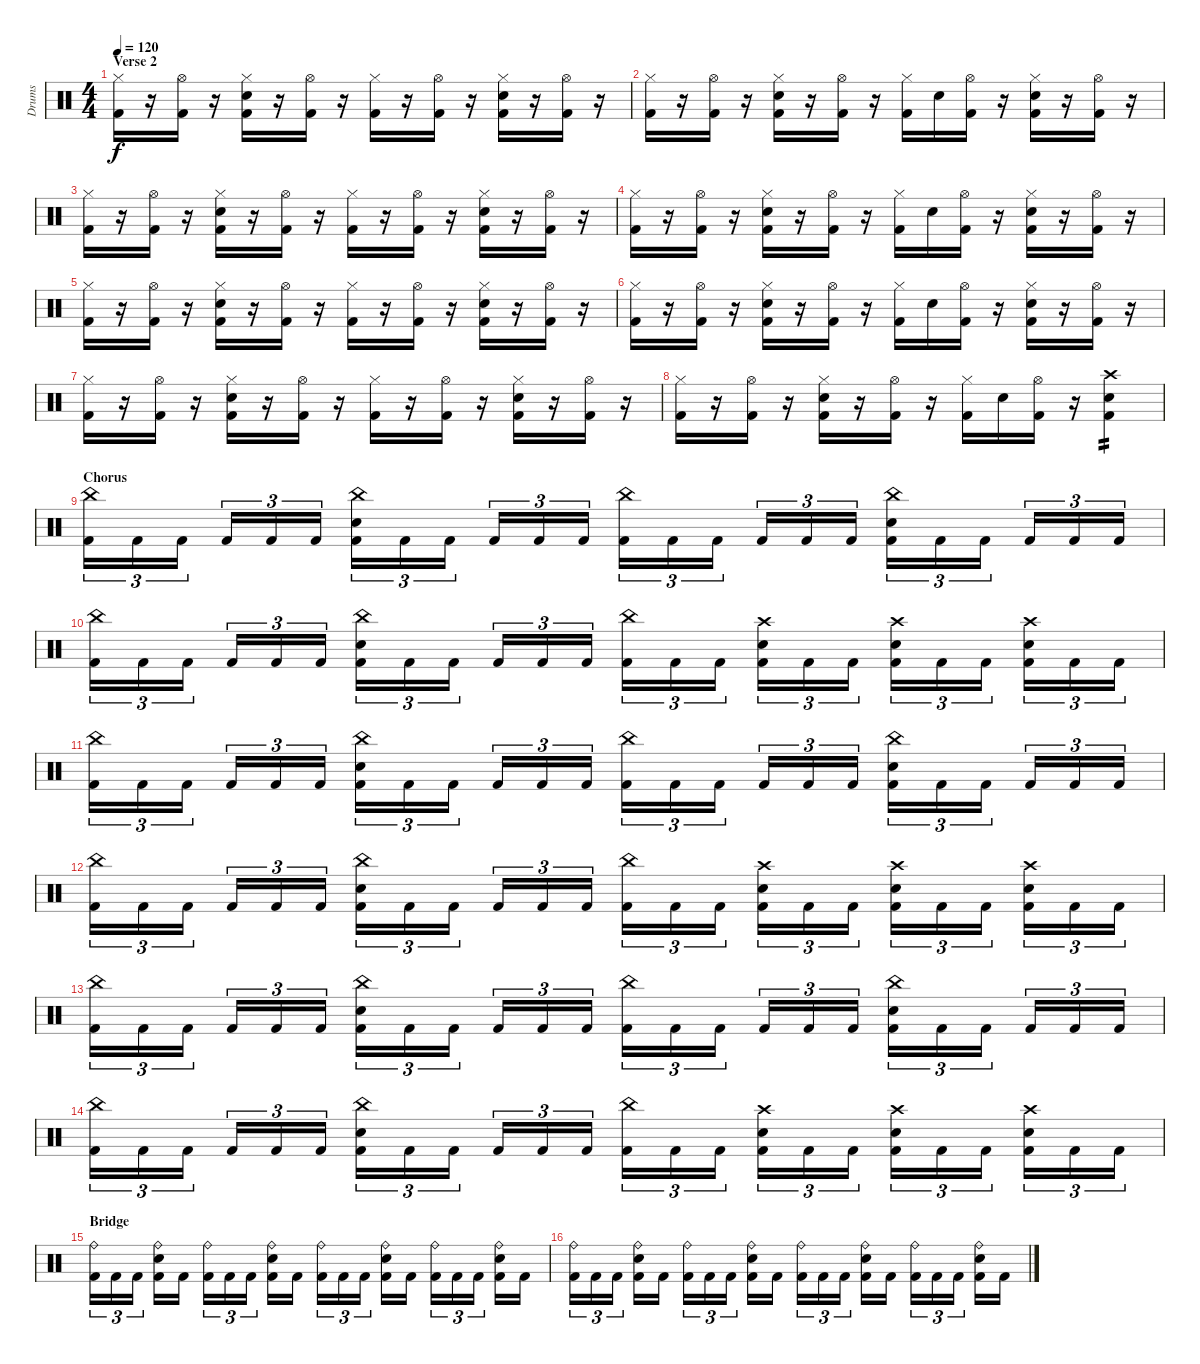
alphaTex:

\track ("Drums" "Drums") {instrument percussion}
\staff {score}
\articulation defaults
\ts (4 4)
\section ("" "Verse 2")
\tempo 120
\clef neutral
\ks c
("Hi-Hat (closed)" "Kick (hit) 2").16{dy f} r.16 ("Hi-Hat (open)" "Kick (hit) 2").16 r.16 ("Hi-Hat (closed)" "Electric Snare (hit)" "Kick (hit) 2").16 r.16 ("Hi-Hat (open)" "Kick (hit) 2").16 r.16 ("Hi-Hat (closed)" "Kick (hit) 2").16 r.16 ("Hi-Hat (open)" "Kick (hit) 2").16 r.16 ("Hi-Hat (closed)" "Electric Snare (hit)" "Kick (hit) 2").16 r.16 ("Hi-Hat (open)" "Kick (hit) 2").16 r.16 |
("Hi-Hat (closed)" "Kick (hit) 2").16 r.16 ("Hi-Hat (open)" "Kick (hit) 2").16 r.16 ("Hi-Hat (closed)" "Electric Snare (hit)" "Kick (hit) 2").16 r.16 ("Hi-Hat (open)" "Kick (hit) 2").16 r.16 ("Hi-Hat (closed)" "Kick (hit) 2").16 "Electric Snare (hit)".16 ("Hi-Hat (open)" "Kick (hit) 2").16 r.16 ("Hi-Hat (closed)" "Electric Snare (hit)" "Kick (hit) 2").16 r.16 ("Hi-Hat (open)" "Kick (hit) 2").16 r.16 |
("Hi-Hat (closed)" "Kick (hit) 2").16 r.16 ("Hi-Hat (open)" "Kick (hit) 2").16 r.16 ("Hi-Hat (closed)" "Electric Snare (hit)" "Kick (hit) 2").16 r.16 ("Hi-Hat (open)" "Kick (hit) 2").16 r.16 ("Hi-Hat (closed)" "Kick (hit) 2").16 r.16 ("Hi-Hat (open)" "Kick (hit) 2").16 r.16 ("Hi-Hat (closed)" "Electric Snare (hit)" "Kick (hit) 2").16 r.16 ("Hi-Hat (open)" "Kick (hit) 2").16 r.16 |
("Hi-Hat (closed)" "Kick (hit) 2").16 r.16 ("Hi-Hat (open)" "Kick (hit) 2").16 r.16 ("Hi-Hat (closed)" "Electric Snare (hit)" "Kick (hit) 2").16 r.16 ("Hi-Hat (open)" "Kick (hit) 2").16 r.16 ("Hi-Hat (closed)" "Kick (hit) 2").16 "Electric Snare (hit)".16 ("Hi-Hat (open)" "Kick (hit) 2").16 r.16 ("Hi-Hat (closed)" "Electric Snare (hit)" "Kick (hit) 2").16 r.16 ("Hi-Hat (open)" "Kick (hit) 2").16 r.16 |
("Hi-Hat (closed)" "Kick (hit) 2").16 r.16 ("Hi-Hat (open)" "Kick (hit) 2").16 r.16 ("Hi-Hat (closed)" "Electric Snare (hit)" "Kick (hit) 2").16 r.16 ("Hi-Hat (open)" "Kick (hit) 2").16 r.16 ("Hi-Hat (closed)" "Kick (hit) 2").16 r.16 ("Hi-Hat (open)" "Kick (hit) 2").16 r.16 ("Hi-Hat (closed)" "Electric Snare (hit)" "Kick (hit) 2").16 r.16 ("Hi-Hat (open)" "Kick (hit) 2").16 r.16 |
("Hi-Hat (closed)" "Kick (hit) 2").16 r.16 ("Hi-Hat (open)" "Kick (hit) 2").16 r.16 ("Hi-Hat (closed)" "Electric Snare (hit)" "Kick (hit) 2").16 r.16 ("Hi-Hat (open)" "Kick (hit) 2").16 r.16 ("Hi-Hat (closed)" "Kick (hit) 2").16 "Electric Snare (hit)".16 ("Hi-Hat (open)" "Kick (hit) 2").16 r.16 ("Hi-Hat (closed)" "Electric Snare (hit)" "Kick (hit) 2").16 r.16 ("Hi-Hat (open)" "Kick (hit) 2").16 r.16 |
("Hi-Hat (closed)" "Kick (hit) 2").16 r.16 ("Hi-Hat (open)" "Kick (hit) 2").16 r.16 ("Hi-Hat (closed)" "Electric Snare (hit)" "Kick (hit) 2").16 r.16 ("Hi-Hat (open)" "Kick (hit) 2").16 r.16 ("Hi-Hat (closed)" "Kick (hit) 2").16 r.16 ("Hi-Hat (open)" "Kick (hit) 2").16 r.16 ("Hi-Hat (closed)" "Electric Snare (hit)" "Kick (hit) 2").16 r.16 ("Hi-Hat (open)" "Kick (hit) 2").16 r.16 |
("Hi-Hat (closed)" "Kick (hit) 2").16 r.16 ("Hi-Hat (open)" "Kick (hit) 2").16 r.16 ("Hi-Hat (closed)" "Electric Snare (hit)" "Kick (hit) 2").16 r.16 ("Hi-Hat (open)" "Kick (hit) 2").16 r.16 ("Hi-Hat (closed)" "Kick (hit) 2").16 "Electric Snare (hit)".16 ("Hi-Hat (open)" "Kick (hit) 2").16 r.16 ("Crash high (hit)" "Electric Snare (hit)" "Kick (hit) 2").4{tp 2} |
\section ("" "Chorus")
("China (hit)" "Kick (hit) 2").16{tu (3 2)} "Kick (hit) 2".16{tu (3 2)} "Kick (hit) 2".16{tu (3 2)} "Kick (hit) 2".16{tu (3 2)} "Kick (hit) 2".16{tu (3 2)} "Kick (hit) 2".16{tu (3 2)} ("China (hit)" "Electric Snare (hit)" "Kick (hit) 2").16{tu (3 2)} "Kick (hit) 2".16{tu (3 2)} "Kick (hit) 2".16{tu (3 2)} "Kick (hit) 2".16{tu (3 2)} "Kick (hit) 2".16{tu (3 2)} "Kick (hit) 2".16{tu (3 2)} ("China (hit)" "Kick (hit) 2").16{tu (3 2)} "Kick (hit) 2".16{tu (3 2)} "Kick (hit) 2".16{tu (3 2)} "Kick (hit) 2".16{tu (3 2)} "Kick (hit) 2".16{tu (3 2)} "Kick (hit) 2".16{tu (3 2)} ("China (hit)" "Electric Snare (hit)" "Kick (hit) 2").16{tu (3 2)} "Kick (hit) 2".16{tu (3 2)} "Kick (hit) 2".16{tu (3 2)} "Kick (hit) 2".16{tu (3 2)} "Kick (hit) 2".16{tu (3 2)} "Kick (hit) 2".16{tu (3 2)} |
("China (hit)" "Kick (hit) 2").16{tu (3 2)} "Kick (hit) 2".16{tu (3 2)} "Kick (hit) 2".16{tu (3 2)} "Kick (hit) 2".16{tu (3 2)} "Kick (hit) 2".16{tu (3 2)} "Kick (hit) 2".16{tu (3 2)} ("China (hit)" "Electric Snare (hit)" "Kick (hit) 2").16{tu (3 2)} "Kick (hit) 2".16{tu (3 2)} "Kick (hit) 2".16{tu (3 2)} "Kick (hit) 2".16{tu (3 2)} "Kick (hit) 2".16{tu (3 2)} "Kick (hit) 2".16{tu (3 2)} ("China (hit)" "Kick (hit) 2").16{tu (3 2)} "Kick (hit) 2".16{tu (3 2)} "Kick (hit) 2".16{tu (3 2)} ("Crash high (hit)" "Electric Snare (hit)" "Kick (hit) 2").16{tu (3 2)} "Kick (hit) 2".16{tu (3 2)} "Kick (hit) 2".16{tu (3 2)} ("Crash high (hit)" "Electric Snare (hit)" "Kick (hit) 2").16{tu (3 2)} "Kick (hit) 2".16{tu (3 2)} "Kick (hit) 2".16{tu (3 2)} ("Crash high (hit)" "Electric Snare (hit)" "Kick (hit) 2").16{tu (3 2)} "Kick (hit) 2".16{tu (3 2)} "Kick (hit) 2".16{tu (3 2)} |
("China (hit)" "Kick (hit) 2").16{tu (3 2)} "Kick (hit) 2".16{tu (3 2)} "Kick (hit) 2".16{tu (3 2)} "Kick (hit) 2".16{tu (3 2)} "Kick (hit) 2".16{tu (3 2)} "Kick (hit) 2".16{tu (3 2)} ("China (hit)" "Electric Snare (hit)" "Kick (hit) 2").16{tu (3 2)} "Kick (hit) 2".16{tu (3 2)} "Kick (hit) 2".16{tu (3 2)} "Kick (hit) 2".16{tu (3 2)} "Kick (hit) 2".16{tu (3 2)} "Kick (hit) 2".16{tu (3 2)} ("China (hit)" "Kick (hit) 2").16{tu (3 2)} "Kick (hit) 2".16{tu (3 2)} "Kick (hit) 2".16{tu (3 2)} "Kick (hit) 2".16{tu (3 2)} "Kick (hit) 2".16{tu (3 2)} "Kick (hit) 2".16{tu (3 2)} ("China (hit)" "Electric Snare (hit)" "Kick (hit) 2").16{tu (3 2)} "Kick (hit) 2".16{tu (3 2)} "Kick (hit) 2".16{tu (3 2)} "Kick (hit) 2".16{tu (3 2)} "Kick (hit) 2".16{tu (3 2)} "Kick (hit) 2".16{tu (3 2)} |
("China (hit)" "Kick (hit) 2").16{tu (3 2)} "Kick (hit) 2".16{tu (3 2)} "Kick (hit) 2".16{tu (3 2)} "Kick (hit) 2".16{tu (3 2)} "Kick (hit) 2".16{tu (3 2)} "Kick (hit) 2".16{tu (3 2)} ("China (hit)" "Electric Snare (hit)" "Kick (hit) 2").16{tu (3 2)} "Kick (hit) 2".16{tu (3 2)} "Kick (hit) 2".16{tu (3 2)} "Kick (hit) 2".16{tu (3 2)} "Kick (hit) 2".16{tu (3 2)} "Kick (hit) 2".16{tu (3 2)} ("China (hit)" "Kick (hit) 2").16{tu (3 2)} "Kick (hit) 2".16{tu (3 2)} "Kick (hit) 2".16{tu (3 2)} ("Crash high (hit)" "Electric Snare (hit)" "Kick (hit) 2").16{tu (3 2)} "Kick (hit) 2".16{tu (3 2)} "Kick (hit) 2".16{tu (3 2)} ("Crash high (hit)" "Electric Snare (hit)" "Kick (hit) 2").16{tu (3 2)} "Kick (hit) 2".16{tu (3 2)} "Kick (hit) 2".16{tu (3 2)} ("Crash high (hit)" "Electric Snare (hit)" "Kick (hit) 2").16{tu (3 2)} "Kick (hit) 2".16{tu (3 2)} "Kick (hit) 2".16{tu (3 2)} |
("China (hit)" "Kick (hit) 2").16{tu (3 2)} "Kick (hit) 2".16{tu (3 2)} "Kick (hit) 2".16{tu (3 2)} "Kick (hit) 2".16{tu (3 2)} "Kick (hit) 2".16{tu (3 2)} "Kick (hit) 2".16{tu (3 2)} ("China (hit)" "Electric Snare (hit)" "Kick (hit) 2").16{tu (3 2)} "Kick (hit) 2".16{tu (3 2)} "Kick (hit) 2".16{tu (3 2)} "Kick (hit) 2".16{tu (3 2)} "Kick (hit) 2".16{tu (3 2)} "Kick (hit) 2".16{tu (3 2)} ("China (hit)" "Kick (hit) 2").16{tu (3 2)} "Kick (hit) 2".16{tu (3 2)} "Kick (hit) 2".16{tu (3 2)} "Kick (hit) 2".16{tu (3 2)} "Kick (hit) 2".16{tu (3 2)} "Kick (hit) 2".16{tu (3 2)} ("China (hit)" "Electric Snare (hit)" "Kick (hit) 2").16{tu (3 2)} "Kick (hit) 2".16{tu (3 2)} "Kick (hit) 2".16{tu (3 2)} "Kick (hit) 2".16{tu (3 2)} "Kick (hit) 2".16{tu (3 2)} "Kick (hit) 2".16{tu (3 2)} |
("China (hit)" "Kick (hit) 2").16{tu (3 2)} "Kick (hit) 2".16{tu (3 2)} "Kick (hit) 2".16{tu (3 2)} "Kick (hit) 2".16{tu (3 2)} "Kick (hit) 2".16{tu (3 2)} "Kick (hit) 2".16{tu (3 2)} ("China (hit)" "Electric Snare (hit)" "Kick (hit) 2").16{tu (3 2)} "Kick (hit) 2".16{tu (3 2)} "Kick (hit) 2".16{tu (3 2)} "Kick (hit) 2".16{tu (3 2)} "Kick (hit) 2".16{tu (3 2)} "Kick (hit) 2".16{tu (3 2)} ("China (hit)" "Kick (hit) 2").16{tu (3 2)} "Kick (hit) 2".16{tu (3 2)} "Kick (hit) 2".16{tu (3 2)} ("Crash high (hit)" "Electric Snare (hit)" "Kick (hit) 2").16{tu (3 2)} "Kick (hit) 2".16{tu (3 2)} "Kick (hit) 2".16{tu (3 2)} ("Crash high (hit)" "Electric Snare (hit)" "Kick (hit) 2").16{tu (3 2)} "Kick (hit) 2".16{tu (3 2)} "Kick (hit) 2".16{tu (3 2)} ("Crash high (hit)" "Electric Snare (hit)" "Kick (hit) 2").16{tu (3 2)} "Kick (hit) 2".16{tu (3 2)} "Kick (hit) 2".16{tu (3 2)} |
\section ("" "Bridge")
("Ride (bell)" "Kick (hit) 2").16{tu (3 2)} "Kick (hit) 2".16{tu (3 2)} "Kick (hit) 2".16{tu (3 2)} ("Ride (bell)" "Electric Snare (hit)" "Kick (hit) 2").16 "Kick (hit) 2".16 ("Ride (bell)" "Kick (hit) 2").16{tu (3 2)} "Kick (hit) 2".16{tu (3 2)} "Kick (hit) 2".16{tu (3 2)} ("Ride (bell)" "Electric Snare (hit)" "Kick (hit) 2").16 "Kick (hit) 2".16 ("Ride (bell)" "Kick (hit) 2").16{tu (3 2)} "Kick (hit) 2".16{tu (3 2)} "Kick (hit) 2".16{tu (3 2)} ("Ride (bell)" "Electric Snare (hit)" "Kick (hit) 2").16 "Kick (hit) 2".16 ("Ride (bell)" "Kick (hit) 2").16{tu (3 2)} "Kick (hit) 2".16{tu (3 2)} "Kick (hit) 2".16{tu (3 2)} ("Ride (bell)" "Electric Snare (hit)" "Kick (hit) 2").16 "Kick (hit) 2".16 |
("Ride (bell)" "Kick (hit) 2").16{tu (3 2)} "Kick (hit) 2".16{tu (3 2)} "Kick (hit) 2".16{tu (3 2)} ("Ride (bell)" "Electric Snare (hit)" "Kick (hit) 2").16 "Kick (hit) 2".16 ("Ride (bell)" "Kick (hit) 2").16{tu (3 2)} "Kick (hit) 2".16{tu (3 2)} "Kick (hit) 2".16{tu (3 2)} ("Ride (bell)" "Electric Snare (hit)" "Kick (hit) 2").16 "Kick (hit) 2".16 ("Ride (bell)" "Kick (hit) 2").16{tu (3 2)} "Kick (hit) 2".16{tu (3 2)} "Kick (hit) 2".16{tu (3 2)} ("Ride (bell)" "Electric Snare (hit)" "Kick (hit) 2").16 "Kick (hit) 2".16 ("Ride (bell)" "Kick (hit) 2").16{tu (3 2)} "Kick (hit) 2".16{tu (3 2)} "Kick (hit) 2".16{tu (3 2)} ("Ride (bell)" "Electric Snare (hit)" "Kick (hit) 2").16 "Kick (hit) 2".16
